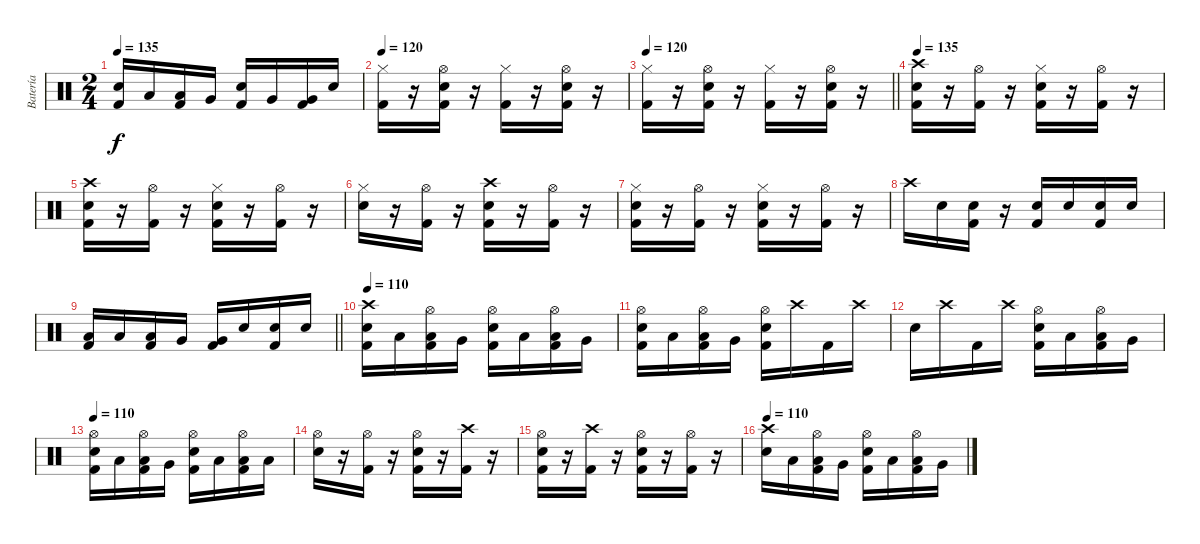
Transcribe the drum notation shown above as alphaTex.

\track ("Batería   (Jony)" "Batería   ") {instrument percussion}
\staff {score}
\articulation defaults
\ts (2 4)
\tempo 135
\clef neutral
\ks c
("Electric Snare (hit)" "Kick (hit) 2").16{dy f} "Low Tom (hit)".16 ("Low Tom (hit)" "Kick (hit) 2").16 "Very Low Tom (hit)".16 ("Electric Snare (hit)" "Kick (hit) 2").16 "Very Low Tom (hit)".16 ("Very Low Tom (hit)" "Kick (hit) 2").16 "Electric Snare (hit)".16 |
\tempo 120
("Hi-Hat (closed)" "Kick (hit) 2").16 r.16 ("Hi-Hat (open)" "Electric Snare (hit)" "Kick (hit) 2").16 r.16 ("Hi-Hat (closed)" "Kick (hit) 2").16 r.16 ("Hi-Hat (open)" "Electric Snare (hit)" "Kick (hit) 2").16 r.16 |
\tempo 120
\barLineRight lightlight
("Hi-Hat (closed)" "Kick (hit) 2").16 r.16 ("Hi-Hat (open)" "Electric Snare (hit)" "Kick (hit) 2").16 r.16 ("Hi-Hat (closed)" "Kick (hit) 2").16 r.16 ("Hi-Hat (open)" "Electric Snare (hit)" "Kick (hit) 2").16 r.16 |
\tempo 135
("Crash high (hit)" "Electric Snare (hit)" "Kick (hit) 2").16 r.16 ("Hi-Hat (open)" "Kick (hit) 2").16 r.16 ("Hi-Hat (closed)" "Electric Snare (hit)" "Kick (hit) 2").16 r.16 ("Hi-Hat (open)" "Kick (hit) 2").16 r.16 |
("Crash high (hit)" "Electric Snare (hit)" "Kick (hit) 2").16 r.16 ("Hi-Hat (open)" "Kick (hit) 2").16 r.16 ("Hi-Hat (closed)" "Electric Snare (hit)" "Kick (hit) 2").16 r.16 ("Hi-Hat (open)" "Kick (hit) 2").16 r.16 |
("Hi-Hat (closed)" "Electric Snare (hit)").16 r.16 ("Hi-Hat (open)" "Kick (hit) 2").16 r.16 ("Crash high (hit)" "Electric Snare (hit)" "Kick (hit) 2").16 r.16 ("Hi-Hat (open)" "Kick (hit) 2").16 r.16 |
("Hi-Hat (closed)" "Electric Snare (hit)" "Kick (hit) 2").16 r.16 ("Hi-Hat (open)" "Kick (hit) 2").16 r.16 ("Hi-Hat (closed)" "Electric Snare (hit)" "Kick (hit) 2").16 r.16 ("Hi-Hat (open)" "Kick (hit) 2").16 r.16 |
"Crash high (hit)".16 "Electric Snare (hit)".16 ("Electric Snare (hit)" "Kick (hit) 2").16 r.16 ("Electric Snare (hit)" "Kick (hit) 2").16 "Electric Snare (hit)".16 ("Electric Snare (hit)" "Kick (hit) 2").16 "Electric Snare (hit)".16 |
\barLineRight lightlight
("Low Tom (hit)" "Kick (hit) 2").16 "Low Tom (hit)".16 ("Low Tom (hit)" "Kick (hit) 2").16 "Very Low Tom (hit)".16 ("Very Low Tom (hit)" "Kick (hit) 2").16 "Electric Snare (hit)".16 ("Electric Snare (hit)" "Kick (hit) 2").16 "Electric Snare (hit)".16 |
\tempo 110
("Crash high (hit)" "Electric Snare (hit)" "Kick (hit) 2").16 "Low Tom (hit)".16 ("Hi-Hat (open)" "Low Tom (hit)" "Kick (hit) 2").16 "Very Low Tom (hit)".16 ("Hi-Hat (open)" "Electric Snare (hit)" "Kick (hit) 2").16 "Low Tom (hit)".16 ("Hi-Hat (open)" "Low Tom (hit)" "Kick (hit) 2").16 "Very Low Tom (hit)".16 |
("Hi-Hat (open)" "Electric Snare (hit)" "Kick (hit) 2").16 "Low Tom (hit)".16 ("Hi-Hat (open)" "Low Tom (hit)" "Kick (hit) 2").16 "Very Low Tom (hit)".16 ("Hi-Hat (open)" "Electric Snare (hit)" "Kick (hit) 2").16 "Crash high (hit)".16 "Kick (hit) 2".16 "Crash high (hit)".16 |
"Electric Snare (hit)".16 "Crash high (hit)".16 "Kick (hit) 2".16 "Crash high (hit)".16 ("Hi-Hat (open)" "Electric Snare (hit)" "Kick (hit) 2").16 "Low Tom (hit)".16 ("Hi-Hat (open)" "Low Tom (hit)" "Kick (hit) 2").16 "Very Low Tom (hit)".16 |
\tempo 110
("Hi-Hat (open)" "Electric Snare (hit)" "Kick (hit) 2").16 "Low Tom (hit)".16 ("Hi-Hat (open)" "Low Tom (hit)" "Kick (hit) 2").16 "Very Low Tom (hit)".16 ("Hi-Hat (open)" "Electric Snare (hit)" "Kick (hit) 2").16 "Low Tom (hit)".16 ("Hi-Hat (open)" "Low Tom (hit)" "Kick (hit) 2").16 "Low Tom (hit)".16 |
("Hi-Hat (open)" "Electric Snare (hit)").16 r.16 ("Hi-Hat (open)" "Kick (hit) 2").16 r.16 ("Hi-Hat (open)" "Electric Snare (hit)" "Kick (hit) 2").16 r.16 ("Crash high (hit)" "Kick (hit) 2").16 r.16 |
("Hi-Hat (open)" "Electric Snare (hit)" "Kick (hit) 2").16 r.16 ("Crash high (hit)" "Kick (hit) 2").16 r.16 ("Hi-Hat (open)" "Electric Snare (hit)" "Kick (hit) 2").16 r.16 ("Hi-Hat (open)" "Kick (hit) 2").16 r.16 |
\tempo 110
("Crash high (hit)" "Electric Snare (hit)").16 "Low Tom (hit)".16 ("Hi-Hat (open)" "Low Tom (hit)" "Kick (hit) 2").16 "Very Low Tom (hit)".16 ("Hi-Hat (open)" "Electric Snare (hit)" "Kick (hit) 2").16 "Low Tom (hit)".16 ("Hi-Hat (open)" "Low Tom (hit)" "Kick (hit) 2").16 "Very Low Tom (hit)".16
